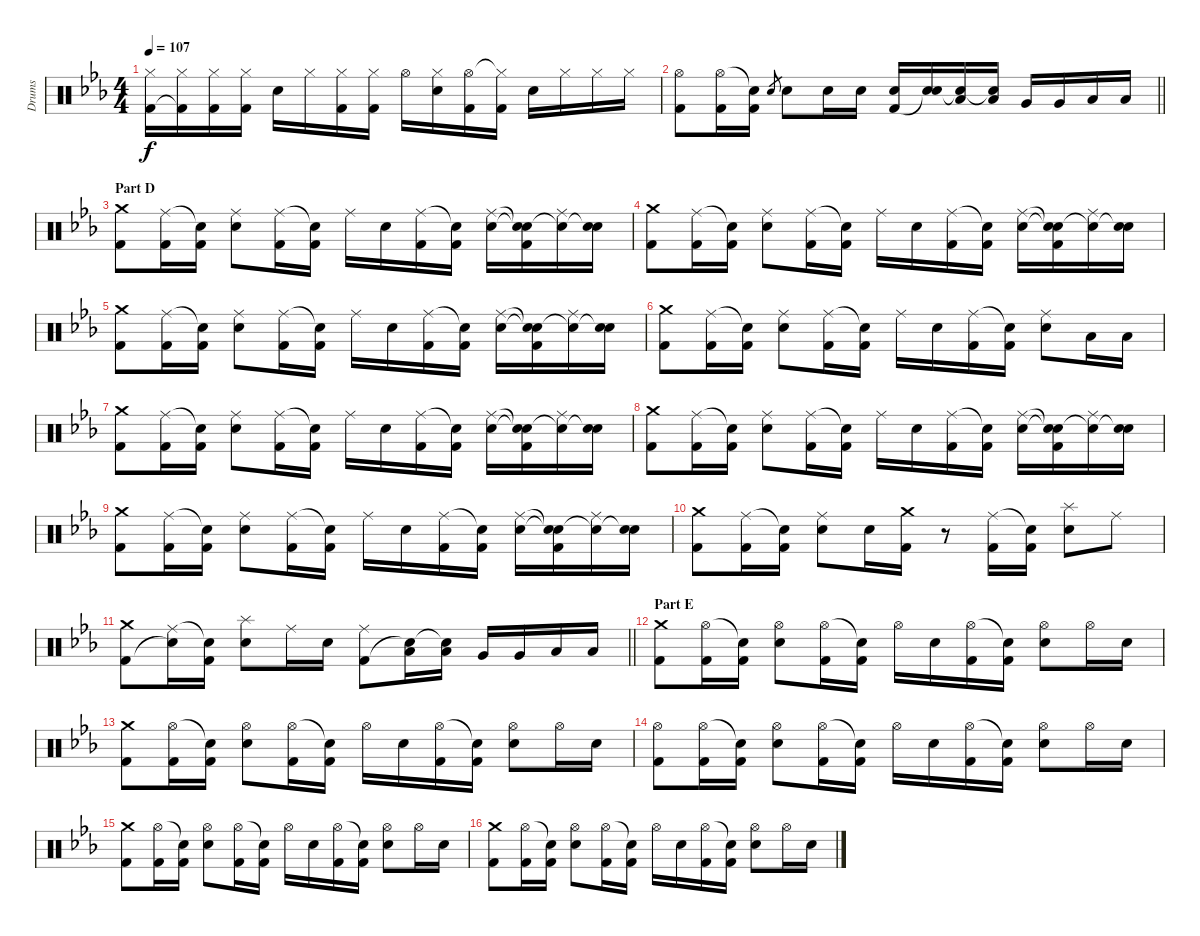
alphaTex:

\track ("Drums" "Drums") {instrument percussion}
\staff {score}
\articulation defaults
\ts (4 4)
\tempo 107
\clef neutral
\ks eb
("Hi-Hat (closed)" "Kick (hit) 2").16{dy f} ("Hi-Hat (closed)" "Kick (hit) 2"{t}).16 ("Hi-Hat (closed)" "Kick (hit) 2").16 ("Hi-Hat (closed)" "Kick (hit) 2").16 "Electric Snare (hit)".16 "Hi-Hat (closed)".16 ("Hi-Hat (closed)" "Kick (hit) 2").16 ("Hi-Hat (closed)" "Kick (hit) 2").16 "Hi-Hat (open)".16 ("Hi-Hat (closed)" "Electric Snare (hit)").16 ("Hi-Hat (open)" "Kick (hit) 2").16 ("Hi-Hat (closed)"{t} "Kick (hit) 2").16 "Electric Snare (hit)".16 "Hi-Hat (closed)".16 "Hi-Hat (closed)".16 "Hi-Hat (closed)".16 |
\barLineRight lightlight
("Hi-Hat (open)" "Kick (hit) 2").8 ("Hi-Hat (open)" "Kick (hit) 2").16 ("Snare (hit)"{t} "Kick (hit) 2").16 "Electric Snare (hit)".8{gr} "Electric Snare (hit)".8 "Electric Snare (hit)".16 "Electric Snare (hit)".16 ("Electric Snare (hit)" "Kick (hit) 2").16 ("Electric Snare (hit)" "Snare (hit)"{t}).16 ("Low Tom (hit)" "Snare (hit)"{t}).16 ("Low Tom (hit)" "Snare (hit)"{t}).16 "Very Low Tom (hit)".16 "Very Low Tom (hit)".16 "Low Floor Tom (hit)".16 "Low Floor Tom (hit)".16 |
\section ("" "Part D")
("Crash medium (hit)" "Kick (hit) 2").8 ("Ride (middle)" "Kick (hit) 2").16 ("Snare (hit)"{t} "Kick (hit) 2").16 ("Ride (middle)" "Electric Snare (hit)").8 ("Ride (middle)" "Kick (hit) 2").16 ("Snare (hit)"{t} "Kick (hit) 2").16 "Ride (middle)".16 "Electric Snare (hit)".16 ("Ride (middle)" "Kick (hit) 2").16 ("Snare (hit)"{t} "Kick (hit) 2").16 ("Ride (middle)" "Electric Snare (hit)").16 ("Snare (hit)"{t} "Snare (hit)"{t} "Kick (hit) 2").16 ("Ride (middle)" "Snare (hit)"{t}).16 ("Electric Snare (hit)" "Snare (hit)"{t}).16 |
("Crash medium (hit)" "Kick (hit) 2").8 ("Ride (middle)" "Kick (hit) 2").16 ("Snare (hit)"{t} "Kick (hit) 2").16 ("Ride (middle)" "Electric Snare (hit)").8 ("Ride (middle)" "Kick (hit) 2").16 ("Snare (hit)"{t} "Kick (hit) 2").16 "Ride (middle)".16 "Electric Snare (hit)".16 ("Ride (middle)" "Kick (hit) 2").16 ("Snare (hit)"{t} "Kick (hit) 2").16 ("Ride (middle)" "Electric Snare (hit)").16 ("Snare (hit)"{t} "Snare (hit)"{t} "Kick (hit) 2").16 ("Ride (middle)" "Snare (hit)"{t}).16 ("Electric Snare (hit)" "Snare (hit)"{t}).16 |
("Crash medium (hit)" "Kick (hit) 2").8 ("Ride (middle)" "Kick (hit) 2").16 ("Snare (hit)"{t} "Kick (hit) 2").16 ("Ride (middle)" "Electric Snare (hit)").8 ("Ride (middle)" "Kick (hit) 2").16 ("Snare (hit)"{t} "Kick (hit) 2").16 "Ride (middle)".16 "Electric Snare (hit)".16 ("Ride (middle)" "Kick (hit) 2").16 ("Snare (hit)"{t} "Kick (hit) 2").16 ("Ride (middle)" "Electric Snare (hit)").16 ("Snare (hit)"{t} "Snare (hit)"{t} "Kick (hit) 2").16 ("Ride (middle)" "Snare (hit)"{t}).16 ("Electric Snare (hit)" "Snare (hit)"{t}).16 |
("Crash medium (hit)" "Kick (hit) 2").8 ("Ride (middle)" "Kick (hit) 2").16 ("Snare (hit)"{t} "Kick (hit) 2").16 ("Ride (middle)" "Electric Snare (hit)").8 ("Ride (middle)" "Kick (hit) 2").16 ("Snare (hit)"{t} "Kick (hit) 2").16 "Ride (middle)".16 "Electric Snare (hit)".16 ("Ride (middle)" "Kick (hit) 2").16 ("Snare (hit)"{t} "Kick (hit) 2").16 ("Ride (middle)" "Electric Snare (hit)").8 "Low Floor Tom (hit)".16 "Low Floor Tom (hit)".16 |
("Crash medium (hit)" "Kick (hit) 2").8 ("Ride (middle)" "Kick (hit) 2").16 ("Snare (hit)"{t} "Kick (hit) 2").16 ("Ride (middle)" "Electric Snare (hit)").8 ("Ride (middle)" "Kick (hit) 2").16 ("Snare (hit)"{t} "Kick (hit) 2").16 "Ride (middle)".16 "Electric Snare (hit)".16 ("Ride (middle)" "Kick (hit) 2").16 ("Snare (hit)"{t} "Kick (hit) 2").16 ("Ride (middle)" "Electric Snare (hit)").16 ("Snare (hit)"{t} "Snare (hit)"{t} "Kick (hit) 2").16 ("Ride (middle)" "Snare (hit)"{t}).16 ("Electric Snare (hit)" "Snare (hit)"{t}).16 |
("Crash medium (hit)" "Kick (hit) 2").8 ("Ride (middle)" "Kick (hit) 2").16 ("Snare (hit)"{t} "Kick (hit) 2").16 ("Ride (middle)" "Electric Snare (hit)").8 ("Ride (middle)" "Kick (hit) 2").16 ("Snare (hit)"{t} "Kick (hit) 2").16 "Ride (middle)".16 "Electric Snare (hit)".16 ("Ride (middle)" "Kick (hit) 2").16 ("Snare (hit)"{t} "Kick (hit) 2").16 ("Ride (middle)" "Electric Snare (hit)").16 ("Snare (hit)"{t} "Snare (hit)"{t} "Kick (hit) 2").16 ("Ride (middle)" "Snare (hit)"{t}).16 ("Electric Snare (hit)" "Snare (hit)"{t}).16 |
("Crash medium (hit)" "Kick (hit) 2").8 ("Ride (middle)" "Kick (hit) 2").16 ("Snare (hit)"{t} "Kick (hit) 2").16 ("Ride (middle)" "Electric Snare (hit)").8 ("Ride (middle)" "Kick (hit) 2").16 ("Snare (hit)"{t} "Kick (hit) 2").16 "Ride (middle)".16 "Electric Snare (hit)".16 ("Ride (middle)" "Kick (hit) 2").16 ("Snare (hit)"{t} "Kick (hit) 2").16 ("Ride (middle)" "Electric Snare (hit)").16 ("Snare (hit)"{t} "Snare (hit)"{t} "Kick (hit) 2").16 ("Ride (middle)" "Snare (hit)"{t}).16 ("Electric Snare (hit)" "Snare (hit)"{t}).16 |
("Crash medium (hit)" "Kick (hit) 2").8 ("Ride (middle)" "Kick (hit) 2").16 ("Snare (hit)"{t} "Kick (hit) 2").16 ("Ride (middle)" "Electric Snare (hit)").8 "Electric Snare (hit)".16 ("Crash medium (hit)" "Kick (hit) 2").16 r.8 ("Ride (middle)" "Kick (hit) 2").16 ("Snare (hit)"{t} "Kick (hit) 2").16 ("Splash (hit)" "Electric Snare (hit)").8 "Ride (middle)".8 |
\barLineRight lightlight
("Crash medium (hit)" "Kick (hit) 2").8 ("Ride (middle)" "Snare (hit)"{t}).16 ("Snare (hit)"{t} "Kick (hit) 2").16 ("Splash (hit)" "Electric Snare (hit)").8 "Ride (middle)".16 "Electric Snare (hit)".16 ("Ride (middle)" "Kick (hit) 2").8 ("Low Tom (hit)" "Snare (hit)"{t}).16 ("Low Tom (hit)" "Snare (hit)"{t}).16 "Very Low Tom (hit)".16 "Very Low Tom (hit)".16 "Low Floor Tom (hit)".16 "Low Floor Tom (hit)".16 |
\section ("" "Part E")
("Crash medium (hit)" "Kick (hit) 2").8 ("Hi-Hat (open)" "Kick (hit) 2").16 ("Snare (hit)"{t} "Kick (hit) 2").16 ("Hi-Hat (open)" "Electric Snare (hit)").8 ("Hi-Hat (open)" "Kick (hit) 2").16 ("Snare (hit)"{t} "Kick (hit) 2").16 "Hi-Hat (open)".16 "Electric Snare (hit)".16 ("Hi-Hat (open)" "Kick (hit) 2").16 ("Snare (hit)"{t} "Kick (hit) 2").16 ("Hi-Hat (open)" "Electric Snare (hit)").8 "Hi-Hat (open)".16 "Electric Snare (hit)".16 |
("Crash medium (hit)" "Kick (hit) 2").8 ("Hi-Hat (open)" "Kick (hit) 2").16 ("Snare (hit)"{t} "Kick (hit) 2").16 ("Hi-Hat (open)" "Electric Snare (hit)").8 ("Hi-Hat (open)" "Kick (hit) 2").16 ("Snare (hit)"{t} "Kick (hit) 2").16 "Hi-Hat (open)".16 "Electric Snare (hit)".16 ("Hi-Hat (open)" "Kick (hit) 2").16 ("Snare (hit)"{t} "Kick (hit) 2").16 ("Hi-Hat (open)" "Electric Snare (hit)").8 "Hi-Hat (open)".16 "Electric Snare (hit)".16 |
("Hi-Hat (open)" "Kick (hit) 2").8 ("Hi-Hat (open)" "Kick (hit) 2").16 ("Snare (hit)"{t} "Kick (hit) 2").16 ("Hi-Hat (open)" "Electric Snare (hit)").8 ("Hi-Hat (open)" "Kick (hit) 2").16 ("Snare (hit)"{t} "Kick (hit) 2").16 "Hi-Hat (open)".16 "Electric Snare (hit)".16 ("Hi-Hat (open)" "Kick (hit) 2").16 ("Snare (hit)"{t} "Kick (hit) 2").16 ("Hi-Hat (open)" "Electric Snare (hit)").8 "Hi-Hat (open)".16 "Electric Snare (hit)".16 |
("Crash medium (hit)" "Kick (hit) 2").8 ("Hi-Hat (open)" "Kick (hit) 2").16 ("Snare (hit)"{t} "Kick (hit) 2").16 ("Hi-Hat (open)" "Electric Snare (hit)").8 ("Hi-Hat (open)" "Kick (hit) 2").16 ("Snare (hit)"{t} "Kick (hit) 2").16 "Hi-Hat (open)".16 "Electric Snare (hit)".16 ("Hi-Hat (open)" "Kick (hit) 2").16 ("Snare (hit)"{t} "Kick (hit) 2").16 ("Hi-Hat (open)" "Electric Snare (hit)").8 "Hi-Hat (open)".16 "Electric Snare (hit)".16 |
("Crash medium (hit)" "Kick (hit) 2").8 ("Hi-Hat (open)" "Kick (hit) 2").16 ("Snare (hit)"{t} "Kick (hit) 2").16 ("Hi-Hat (open)" "Electric Snare (hit)").8 ("Hi-Hat (open)" "Kick (hit) 2").16 ("Snare (hit)"{t} "Kick (hit) 2").16 "Hi-Hat (open)".16 "Electric Snare (hit)".16 ("Hi-Hat (open)" "Kick (hit) 2").16 ("Snare (hit)"{t} "Kick (hit) 2").16 ("Hi-Hat (open)" "Electric Snare (hit)").8 "Hi-Hat (open)".16 "Electric Snare (hit)".16
